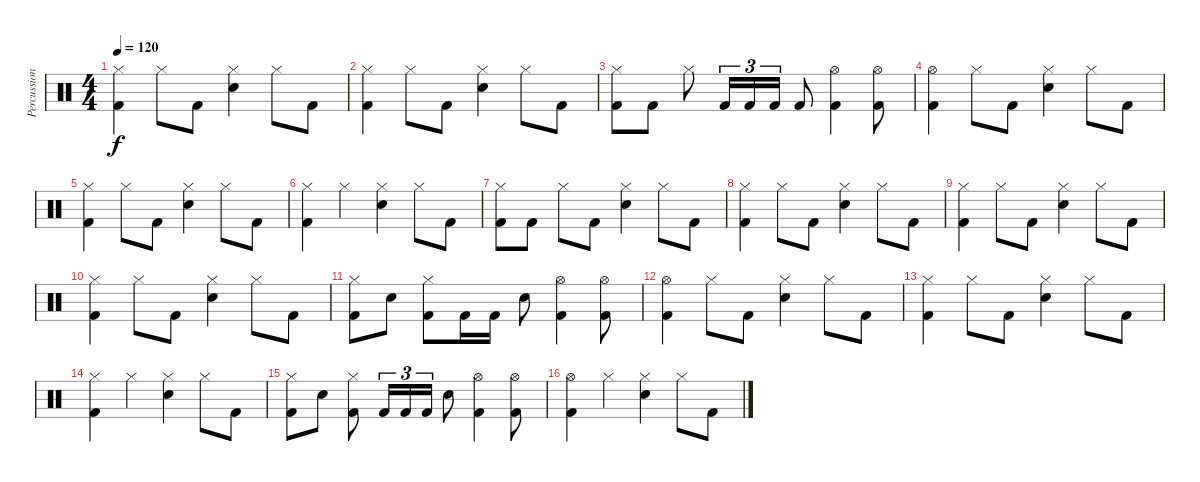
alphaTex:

\track ("Percussions" "Percussion") {instrument percussion}
\staff {score}
\articulation defaults
\ts (4 4)
\tempo 120
\clef neutral
\ks c
("Hi-Hat (closed)" "Kick (hit) 2").4{dy f} "Hi-Hat (closed)".8 "Kick (hit) 2".8 ("Hi-Hat (closed)" "Snare (hit) 2").4 "Hi-Hat (closed)".8 "Kick (hit) 2".8 |
("Hi-Hat (closed)" "Kick (hit) 2").4 "Hi-Hat (closed)".8 "Kick (hit) 2".8 ("Hi-Hat (closed)" "Snare (hit) 2").4 "Hi-Hat (closed)".8 "Kick (hit) 2".8 |
("Hi-Hat (closed)" "Kick (hit) 2").8 "Kick (hit) 2".8 "Hi-Hat (closed)".8 "Kick (hit) 2".16{tu (3 2)} "Kick (hit) 2".16{tu (3 2)} "Kick (hit) 2".16{tu (3 2)} "Kick (hit) 2".8 ("Hi-Hat (open)" "Kick (hit) 2").4 ("Hi-Hat (open)" "Kick (hit) 2").8 |
("Hi-Hat (open)" "Kick (hit) 2").4 "Hi-Hat (closed)".8 "Kick (hit) 2".8 ("Hi-Hat (closed)" "Snare (hit) 2").4 "Hi-Hat (closed)".8 "Kick (hit) 2".8 |
("Hi-Hat (closed)" "Kick (hit) 2").4 "Hi-Hat (closed)".8 "Kick (hit) 2".8 ("Hi-Hat (closed)" "Snare (hit) 2").4 "Hi-Hat (closed)".8 "Kick (hit) 2".8 |
("Hi-Hat (closed)" "Kick (hit) 2").4 "Hi-Hat (closed)".4 ("Hi-Hat (closed)" "Snare (hit) 2").4 "Hi-Hat (closed)".8 "Kick (hit) 2".8 |
("Hi-Hat (closed)" "Kick (hit) 2").8 "Kick (hit) 2".8 "Hi-Hat (closed)".8 "Kick (hit) 2".8 ("Hi-Hat (closed)" "Snare (hit) 2").4 "Hi-Hat (closed)".8 "Kick (hit) 2".8 |
("Hi-Hat (closed)" "Kick (hit) 2").4 "Hi-Hat (closed)".8 "Kick (hit) 2".8 ("Hi-Hat (closed)" "Snare (hit) 2").4 "Hi-Hat (closed)".8 "Kick (hit) 2".8 |
("Hi-Hat (closed)" "Kick (hit) 2").4 "Hi-Hat (closed)".8 "Kick (hit) 2".8 ("Hi-Hat (closed)" "Snare (hit) 2").4 "Hi-Hat (closed)".8 "Kick (hit) 2".8 |
("Hi-Hat (closed)" "Kick (hit) 2").4 "Hi-Hat (closed)".8 "Kick (hit) 2".8 ("Hi-Hat (closed)" "Snare (hit) 2").4 "Hi-Hat (closed)".8 "Kick (hit) 2".8 |
("Hi-Hat (closed)" "Kick (hit) 2").8 "Snare (hit) 2".8 ("Hi-Hat (closed)" "Kick (hit) 2").8 "Kick (hit) 2".16 "Kick (hit) 2".16 "Snare (hit) 2".8 ("Hi-Hat (open)" "Kick (hit) 2").4 ("Hi-Hat (open)" "Kick (hit) 2").8 |
("Hi-Hat (open)" "Kick (hit) 2").4 "Hi-Hat (closed)".8 "Kick (hit) 2".8 ("Hi-Hat (closed)" "Snare (hit) 2").4 "Hi-Hat (closed)".8 "Kick (hit) 2".8 |
("Hi-Hat (closed)" "Kick (hit) 2").4 "Hi-Hat (closed)".8 "Kick (hit) 2".8 ("Hi-Hat (closed)" "Snare (hit) 2").4 "Hi-Hat (closed)".8 "Kick (hit) 2".8 |
("Hi-Hat (closed)" "Kick (hit) 2").4 "Hi-Hat (closed)".4 ("Hi-Hat (closed)" "Snare (hit) 2").4 "Hi-Hat (closed)".8 "Kick (hit) 2".8 |
("Hi-Hat (closed)" "Kick (hit) 2").8 "Snare (hit) 2".8 ("Hi-Hat (closed)" "Kick (hit) 2").8 "Kick (hit) 2".16{tu (3 2)} "Kick (hit) 2".16{tu (3 2)} "Kick (hit) 2".16{tu (3 2)} "Snare (hit) 2".8 ("Hi-Hat (open)" "Kick (hit) 2").4 ("Hi-Hat (open)" "Kick (hit) 2").8 |
("Hi-Hat (open)" "Kick (hit) 2").4 "Hi-Hat (closed)".4 ("Hi-Hat (closed)" "Snare (hit) 2").4 "Hi-Hat (closed)".8 "Kick (hit) 2".8
